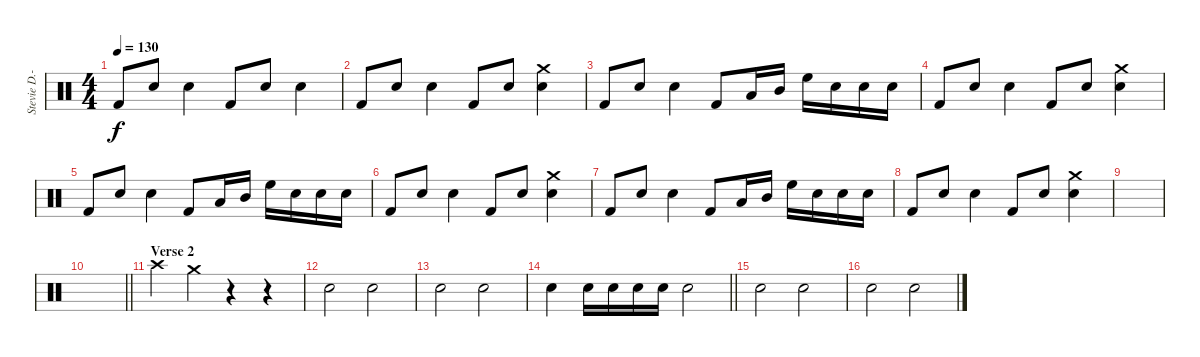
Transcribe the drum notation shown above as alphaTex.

\track ("Stevie D.-Drums" "Stevie D.-") {instrument percussion}
\staff {score}
\articulation defaults
\ts (4 4)
\tempo 130
\clef neutral
\ks c "Kick (hit) 2".8{dy f} "Snare (hit) 2".8 "Electric Snare (hit)".4 "Kick (hit) 2".8 "Snare (hit) 2".8 "Electric Snare (hit)".4
|
"Kick (hit) 2".8 "Snare (hit) 2".8 "Electric Snare (hit)".4 "Kick (hit) 2".8 "Snare (hit) 2".8 ("Electric Snare (hit)" "Crash medium (hit)").4 |
"Kick (hit) 2".8 "Snare (hit) 2".8 "Electric Snare (hit)".4 "Kick (hit) 2".8 "Low Tom (hit)".16 "Mid Tom (hit)".16 "High Floor Tom (hit)".16 "Electric Snare (hit)".16 "Electric Snare (hit)".16 "Electric Snare (hit)".16 |
"Kick (hit) 2".8 "Snare (hit) 2".8 "Electric Snare (hit)".4 "Kick (hit) 2".8 "Snare (hit) 2".8 ("Electric Snare (hit)" "Crash medium (hit)").4 |
"Kick (hit) 2".8 "Snare (hit) 2".8 "Electric Snare (hit)".4 "Kick (hit) 2".8 "Low Tom (hit)".16 "Mid Tom (hit)".16 "High Floor Tom (hit)".16 "Electric Snare (hit)".16 "Electric Snare (hit)".16 "Electric Snare (hit)".16 |
"Kick (hit) 2".8 "Snare (hit) 2".8 "Electric Snare (hit)".4 "Kick (hit) 2".8 "Snare (hit) 2".8 ("Electric Snare (hit)" "Crash medium (hit)").4 |
"Kick (hit) 2".8 "Snare (hit) 2".8 "Electric Snare (hit)".4 "Kick (hit) 2".8 "Low Tom (hit)".16 "Mid Tom (hit)".16 "High Floor Tom (hit)".16 "Electric Snare (hit)".16 "Electric Snare (hit)".16 "Electric Snare (hit)".16 |
"Kick (hit) 2".8 "Snare (hit) 2".8 "Electric Snare (hit)".4 "Kick (hit) 2".8 "Snare (hit) 2".8 ("Electric Snare (hit)" "Crash medium (hit)").4 |
|
\barLineRight lightlight
|
\section ("" "Verse 2")
"Crash high (hit)".4 "Crash medium (hit)".4 r.4 r.4 |
"Snare (hit) 2".2 "Snare (hit) 2".2 |
"Snare (hit) 2".2 "Snare (hit) 2".2 |
\barLineRight lightlight "Snare (hit) 2".4 "Electric Snare (hit)".16 "Electric Snare (hit)".16 "Electric Snare (hit)".16 "Electric Snare (hit)".16 "Snare (hit) 2".2
|
"Snare (hit) 2".2 "Snare (hit) 2".2 |
"Snare (hit) 2".2 "Snare (hit) 2".2
